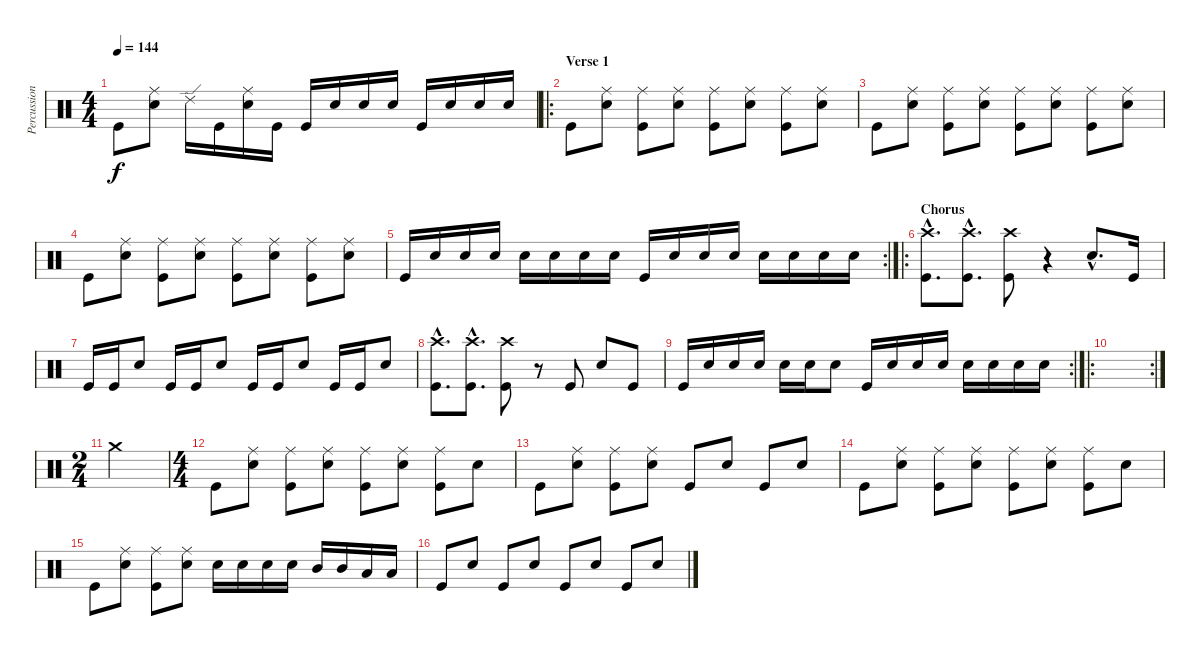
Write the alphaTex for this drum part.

\track ("Percussion" "Percussion") {instrument percussion}
\staff {score}
\articulation defaults
\ts (4 4)
\tempo 144
\clef neutral
\ks c "Kick (hit)".8{dy f}
("Ride (middle)" "Snare (hit) 2").8 "Ride (edge) 2".16 "Kick (hit)".16 ("Ride (middle)" "Snare (hit) 2").16 "Kick (hit)".16 "Kick (hit)".16 "Snare (hit) 2".16 "Snare (hit) 2".16 "Snare (hit) 2".16 "Kick (hit)".16 "Snare (hit) 2".16 "Snare (hit) 2".16 "Snare (hit) 2".16 |
\ro
\section ("" "Verse 1")
"Kick (hit)".8 ("Ride (middle)" "Snare (hit) 2").8 ("Ride (middle)" "Kick (hit)").8 ("Ride (middle)" "Snare (hit) 2").8 ("Ride (middle)" "Kick (hit)").8 ("Ride (middle)" "Snare (hit) 2").8 ("Ride (middle)" "Kick (hit)").8 ("Ride (middle)" "Snare (hit) 2").8 |
"Kick (hit)".8 ("Ride (middle)" "Snare (hit) 2").8 ("Ride (middle)" "Kick (hit)").8 ("Ride (middle)" "Snare (hit) 2").8 ("Ride (middle)" "Kick (hit)").8 ("Ride (middle)" "Snare (hit) 2").8 ("Ride (middle)" "Kick (hit)").8 ("Ride (middle)" "Snare (hit) 2").8 |
"Kick (hit)".8 ("Ride (middle)" "Snare (hit) 2").8 ("Ride (middle)" "Kick (hit)").8 ("Ride (middle)" "Snare (hit) 2").8 ("Ride (middle)" "Kick (hit)").8 ("Ride (middle)" "Snare (hit) 2").8 ("Ride (middle)" "Kick (hit)").8 ("Ride (middle)" "Snare (hit) 2").8 |
\rc 2 "Kick (hit)".16 "Snare (hit) 2".16 "Snare (hit) 2".16 "Snare (hit) 2".16 "Snare (hit) 2".16 "Snare (hit) 2".16 "Snare (hit) 2".16 "Snare (hit) 2".16 "Kick (hit)".16 "Snare (hit) 2".16 "Snare (hit) 2".16 "Snare (hit) 2".16 "Snare (hit) 2".16 "Snare (hit) 2".16 "Snare (hit) 2".16 "Snare (hit) 2".16
|
\ro
\section ("" "Chorus")
("Crash high (hit)"{hac} "Kick (hit)"{hac}).8{d} ("Crash high (hit)"{hac} "Kick (hit)"{hac}).8{d} ("Crash high (hit)" "Kick (hit)").8 r.4 "Snare (hit) 2"{hac}.8{d} "Kick (hit)".16 |
"Kick (hit)".16 "Kick (hit)".16 "Snare (hit) 2".8 "Kick (hit)".16 "Kick (hit)".16 "Snare (hit) 2".8 "Kick (hit)".16 "Kick (hit)".16 "Snare (hit) 2".8 "Kick (hit)".16 "Kick (hit)".16 "Snare (hit) 2".8 |
("Crash high (hit)"{hac} "Kick (hit)"{hac}).8{d} ("Crash high (hit)"{hac} "Kick (hit)"{hac}).8{d} ("Crash high (hit)" "Kick (hit)").8 r.8 "Kick (hit)".8 "Snare (hit) 2".8 "Kick (hit)".8 |
\rc 2 "Kick (hit)".16 "Snare (hit) 2".16 "Snare (hit) 2".16 "Snare (hit) 2".16 "Snare (hit) 2".16 "Snare (hit) 2".16 "Snare (hit) 2".8 "Kick (hit)".16 "Snare (hit) 2".16 "Snare (hit) 2".16 "Snare (hit) 2".16 "Snare (hit) 2".16 "Snare (hit) 2".16 "Snare (hit) 2".16 "Snare (hit) 2".16
|
\ro
\rc 2
|
\ts (2 4)
"Crash medium (hit)".2 |
\ts (4 4)
"Kick (hit)".8 ("Ride (middle)" "Snare (hit) 2").8 ("Ride (middle)" "Kick (hit)").8 ("Ride (middle)" "Snare (hit) 2").8 ("Ride (middle)" "Kick (hit)").8 ("Ride (middle)" "Snare (hit) 2").8 ("Ride (middle)" "Kick (hit)").8 "Snare (hit) 2".8 |
"Kick (hit)".8 ("Ride (middle)" "Snare (hit) 2").8 ("Ride (middle)" "Kick (hit)").8 ("Ride (middle)" "Snare (hit) 2").8 "Kick (hit)".8 "Snare (hit) 2".8 "Kick (hit)".8 "Snare (hit) 2".8 |
"Kick (hit)".8 ("Ride (middle)" "Snare (hit) 2").8 ("Ride (middle)" "Kick (hit)").8 ("Ride (middle)" "Snare (hit) 2").8 ("Ride (middle)" "Kick (hit)").8 ("Ride (middle)" "Snare (hit) 2").8 ("Ride (middle)" "Kick (hit)").8 "Snare (hit) 2".8 |
"Kick (hit)".8 ("Ride (middle)" "Snare (hit) 2").8 ("Ride (middle)" "Kick (hit)").8 ("Ride (middle)" "Snare (hit) 2").8 "Snare (hit) 2".16 "Snare (hit) 2".16 "Snare (hit) 2".16 "Snare (hit) 2".16 "Mid Tom (hit)".16 "Mid Tom (hit)".16 "Low Tom (hit)".16 "Low Tom (hit)".16 |
"Kick (hit)".8 "Snare (hit) 2".8 "Kick (hit)".8 "Snare (hit) 2".8 "Kick (hit)".8 "Snare (hit) 2".8 "Kick (hit)".8 "Snare (hit) 2".8
